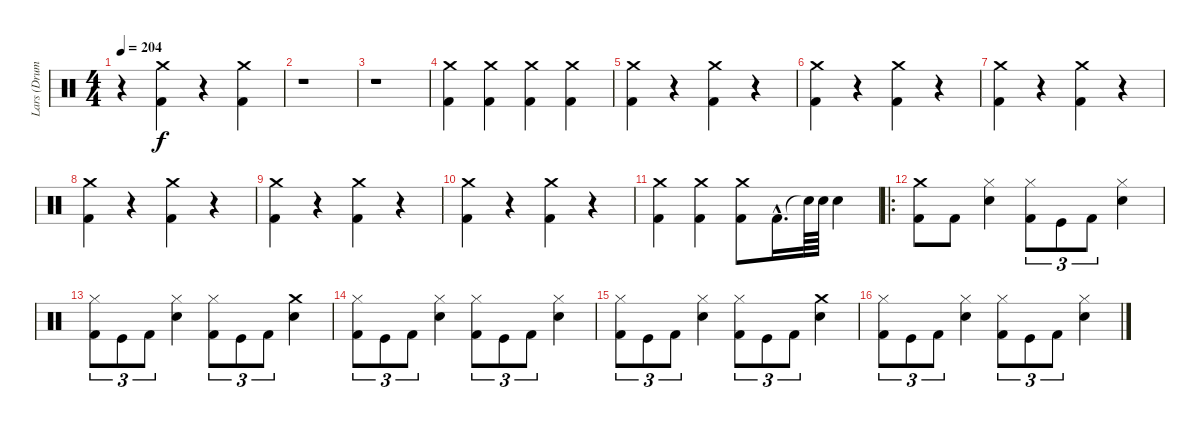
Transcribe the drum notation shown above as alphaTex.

\track ("Lars (Drums)" "Lars (Drum") {instrument percussion}
\staff {score}
\articulation defaults
\ts (4 4)
\tempo 204
\clef neutral
\ks c
r.4{dy f} ("Kick (hit) 2" "Crash medium (hit)").4 r.4 ("Kick (hit) 2" "Crash medium (hit)").4 |
r.1 |
r.1 |
("Kick (hit) 2" "Crash medium (hit)").4 ("Kick (hit) 2" "Crash medium (hit)").4 ("Kick (hit) 2" "Crash medium (hit)").4 ("Kick (hit) 2" "Crash medium (hit)").4 |
("Crash medium (hit)" "Kick (hit) 2").4 r.4 ("Crash medium (hit)" "Kick (hit) 2").4 r.4 |
("Kick (hit) 2" "Crash medium (hit)").4 r.4 ("Kick (hit) 2" "Crash medium (hit)").4 r.4 |
("Kick (hit) 2" "Crash medium (hit)").4 r.4 ("Kick (hit) 2" "Crash medium (hit)").4 r.4 |
("Kick (hit) 2" "Crash medium (hit)").4 r.4 ("Kick (hit) 2" "Crash medium (hit)").4 r.4 |
("Kick (hit) 2" "Crash medium (hit)").4 r.4 ("Kick (hit) 2" "Crash medium (hit)").4 r.4 |
("Kick (hit) 2" "Crash medium (hit)").4 r.4 ("Kick (hit) 2" "Crash medium (hit)").4 r.4 |
("Kick (hit) 2" "Crash medium (hit)").4 ("Kick (hit) 2" "Crash medium (hit)").4 ("Kick (hit) 2" "Crash medium (hit)").8 "Kick (hit) 2"{hac}.16{d} "Snare (hit)"{t}.64 "Snare (hit) 2".64 "Snare (hit) 2".4 |
\ro
("Crash medium (hit)" "Kick (hit) 2").8 "Kick (hit) 2".8 ("Snare (hit) 2" "Hi-Hat (closed)").4 ("Hi-Hat (closed)" "Kick (hit) 2").8{tu (3 2)} "Kick (hit)".8{tu (3 2)} "Kick (hit) 2".8{tu (3 2)} ("Hi-Hat (closed)" "Snare (hit) 2").4 |
("Hi-Hat (closed)" "Kick (hit) 2").8{tu (3 2)} "Kick (hit)".8{tu (3 2)} "Kick (hit) 2".8{tu (3 2)} ("Snare (hit) 2" "Hi-Hat (closed)").4 ("Hi-Hat (closed)" "Kick (hit) 2").8{tu (3 2)} "Kick (hit)".8{tu (3 2)} "Kick (hit) 2".8{tu (3 2)} ("Crash medium (hit)" "Snare (hit) 2").4 |
("Hi-Hat (closed)" "Kick (hit) 2").8{tu (3 2)} "Kick (hit)".8{tu (3 2)} "Kick (hit) 2".8{tu (3 2)} ("Snare (hit) 2" "Hi-Hat (closed)").4 ("Hi-Hat (closed)" "Kick (hit) 2").8{tu (3 2)} "Kick (hit)".8{tu (3 2)} "Kick (hit) 2".8{tu (3 2)} ("Hi-Hat (closed)" "Snare (hit) 2").4 |
("Hi-Hat (closed)" "Kick (hit) 2").8{tu (3 2)} "Kick (hit)".8{tu (3 2)} "Kick (hit) 2".8{tu (3 2)} ("Snare (hit) 2" "Hi-Hat (closed)").4 ("Hi-Hat (closed)" "Kick (hit) 2").8{tu (3 2)} "Kick (hit)".8{tu (3 2)} "Kick (hit) 2".8{tu (3 2)} ("Crash medium (hit)" "Snare (hit) 2").4 |
("Hi-Hat (closed)" "Kick (hit) 2").8{tu (3 2)} "Kick (hit)".8{tu (3 2)} "Kick (hit) 2".8{tu (3 2)} ("Snare (hit) 2" "Hi-Hat (closed)").4 ("Hi-Hat (closed)" "Kick (hit) 2").8{tu (3 2)} "Kick (hit)".8{tu (3 2)} "Kick (hit) 2".8{tu (3 2)} ("Hi-Hat (closed)" "Snare (hit) 2").4
